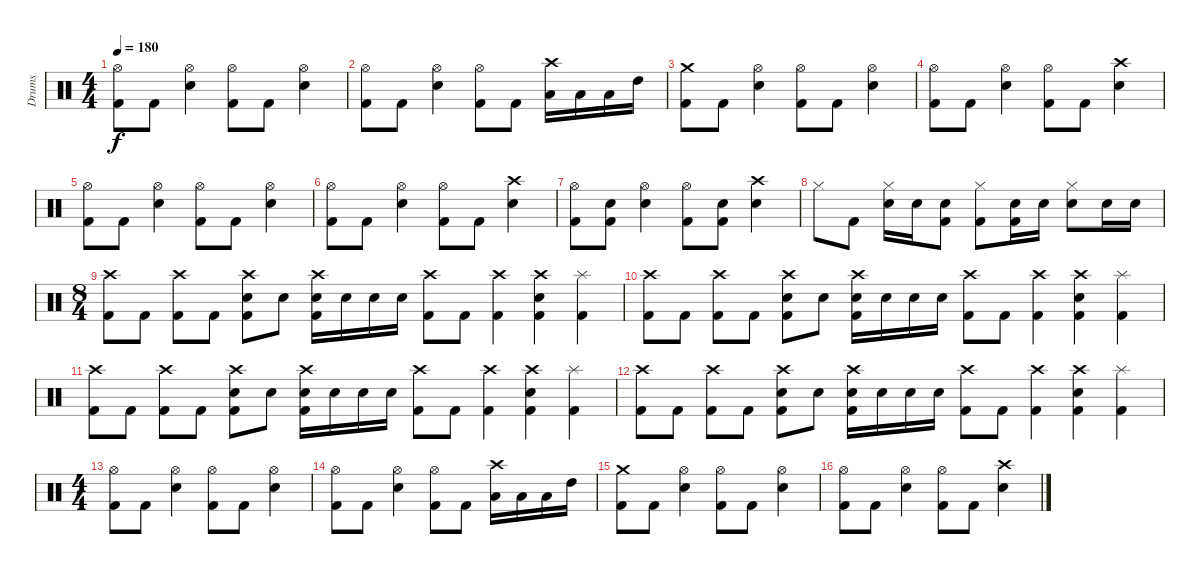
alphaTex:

\track ("Drums" "Drums") {instrument percussion}
\staff {score}
\articulation defaults
\ts (4 4)
\tempo 180
\clef neutral
\ks c
("Kick (hit) 2" "Hi-Hat (open)").8{dy f} "Kick (hit) 2".8 ("Electric Snare (hit)" "Hi-Hat (open)").4 ("Kick (hit) 2" "Hi-Hat (open)").8 "Kick (hit) 2".8 ("Electric Snare (hit)" "Hi-Hat (open)").4 |
("Kick (hit) 2" "Hi-Hat (open)").8 "Kick (hit) 2".8 ("Electric Snare (hit)" "Hi-Hat (open)").4 ("Kick (hit) 2" "Hi-Hat (open)").8 "Kick (hit) 2".8 ("Low Floor Tom (hit)" "Crash high (hit)").16 "Low Floor Tom (hit)".16 "Low Tom (hit)".16 "High Tom (hit)".16 |
("Kick (hit) 2" "Crash medium (hit)").8 "Kick (hit) 2".8 ("Electric Snare (hit)" "Hi-Hat (open)").4 ("Kick (hit) 2" "Hi-Hat (open)").8 "Kick (hit) 2".8 ("Electric Snare (hit)" "Hi-Hat (open)").4 |
("Kick (hit) 2" "Hi-Hat (open)").8 "Kick (hit) 2".8 ("Electric Snare (hit)" "Hi-Hat (open)").4 ("Kick (hit) 2" "Hi-Hat (open)").8 "Kick (hit) 2".8 ("Electric Snare (hit)" "Crash high (hit)").4 |
("Kick (hit) 2" "Hi-Hat (open)").8 "Kick (hit) 2".8 ("Electric Snare (hit)" "Hi-Hat (open)").4 ("Kick (hit) 2" "Hi-Hat (open)").8 "Kick (hit) 2".8 ("Electric Snare (hit)" "Hi-Hat (open)").4 |
("Kick (hit) 2" "Hi-Hat (open)").8 "Kick (hit) 2".8 ("Electric Snare (hit)" "Hi-Hat (open)").4 ("Kick (hit) 2" "Hi-Hat (open)").8 "Kick (hit) 2".8 ("Electric Snare (hit)" "Crash high (hit)").4 |
("Kick (hit) 2" "Hi-Hat (open)").8 ("Kick (hit) 2" "Electric Snare (hit)").8 ("Electric Snare (hit)" "Hi-Hat (open)").4 ("Kick (hit) 2" "Hi-Hat (open)").8 ("Kick (hit) 2" "Electric Snare (hit)").8 ("Electric Snare (hit)" "Crash high (hit)").4 |
"Hi-Hat (closed)".8 "Kick (hit) 2".8 ("Electric Snare (hit)" "Hi-Hat (closed)").16 "Electric Snare (hit)".16 ("Kick (hit) 2" "Electric Snare (hit)").8 ("Kick (hit) 2" "Hi-Hat (closed)").8 ("Kick (hit) 2" "Electric Snare (hit)").16 "Electric Snare (hit)".16 ("Electric Snare (hit)" "Hi-Hat (closed)").8 "Electric Snare (hit)".16 "Electric Snare (hit)".16 |
\ts (8 4)
("Kick (hit) 2" "Crash high (hit)").8 "Kick (hit) 2".8 ("Kick (hit) 2" "Crash high (hit)").8 "Kick (hit) 2".8 ("Kick (hit) 2" "Electric Snare (hit)" "Crash high (hit)").8 "Electric Snare (hit)".8 ("Kick (hit) 2" "Electric Snare (hit)" "Crash high (hit)").16 "Electric Snare (hit)".16 "Electric Snare (hit)".16 "Electric Snare (hit)".16 ("Kick (hit) 2" "Crash high (hit)").8 "Kick (hit) 2".8 ("Kick (hit) 2" "Crash high (hit)").4 ("Kick (hit) 2" "Electric Snare (hit)" "Crash high (hit)").4 ("Kick (hit) 2" "Splash (hit)").4 |
("Kick (hit) 2" "Crash high (hit)").8 "Kick (hit) 2".8 ("Kick (hit) 2" "Crash high (hit)").8 "Kick (hit) 2".8 ("Kick (hit) 2" "Electric Snare (hit)" "Crash high (hit)").8 "Electric Snare (hit)".8 ("Kick (hit) 2" "Electric Snare (hit)" "Crash high (hit)").16 "Electric Snare (hit)".16 "Electric Snare (hit)".16 "Electric Snare (hit)".16 ("Kick (hit) 2" "Crash high (hit)").8 "Kick (hit) 2".8 ("Kick (hit) 2" "Crash high (hit)").4 ("Kick (hit) 2" "Electric Snare (hit)" "Crash high (hit)").4 ("Kick (hit) 2" "Splash (hit)").4 |
("Kick (hit) 2" "Crash high (hit)").8 "Kick (hit) 2".8 ("Kick (hit) 2" "Crash high (hit)").8 "Kick (hit) 2".8 ("Kick (hit) 2" "Electric Snare (hit)" "Crash high (hit)").8 "Electric Snare (hit)".8 ("Kick (hit) 2" "Electric Snare (hit)" "Crash high (hit)").16 "Electric Snare (hit)".16 "Electric Snare (hit)".16 "Electric Snare (hit)".16 ("Kick (hit) 2" "Crash high (hit)").8 "Kick (hit) 2".8 ("Kick (hit) 2" "Crash high (hit)").4 ("Kick (hit) 2" "Electric Snare (hit)" "Crash high (hit)").4 ("Kick (hit) 2" "Splash (hit)").4 |
("Kick (hit) 2" "Crash high (hit)").8 "Kick (hit) 2".8 ("Kick (hit) 2" "Crash high (hit)").8 "Kick (hit) 2".8 ("Kick (hit) 2" "Electric Snare (hit)" "Crash high (hit)").8 "Electric Snare (hit)".8 ("Kick (hit) 2" "Electric Snare (hit)" "Crash high (hit)").16 "Electric Snare (hit)".16 "Electric Snare (hit)".16 "Electric Snare (hit)".16 ("Kick (hit) 2" "Crash high (hit)").8 "Kick (hit) 2".8 ("Kick (hit) 2" "Crash high (hit)").4 ("Kick (hit) 2" "Electric Snare (hit)" "Crash high (hit)").4 ("Kick (hit) 2" "Splash (hit)").4 |
\ts (4 4)
("Kick (hit) 2" "Hi-Hat (open)").8 "Kick (hit) 2".8 ("Electric Snare (hit)" "Hi-Hat (open)").4 ("Kick (hit) 2" "Hi-Hat (open)").8 "Kick (hit) 2".8 ("Electric Snare (hit)" "Hi-Hat (open)").4 |
("Kick (hit) 2" "Hi-Hat (open)").8 "Kick (hit) 2".8 ("Electric Snare (hit)" "Hi-Hat (open)").4 ("Kick (hit) 2" "Hi-Hat (open)").8 "Kick (hit) 2".8 ("Low Floor Tom (hit)" "Crash high (hit)").16 "Low Floor Tom (hit)".16 "Low Tom (hit)".16 "High Tom (hit)".16 |
("Kick (hit) 2" "Crash medium (hit)").8 "Kick (hit) 2".8 ("Electric Snare (hit)" "Hi-Hat (open)").4 ("Kick (hit) 2" "Hi-Hat (open)").8 "Kick (hit) 2".8 ("Electric Snare (hit)" "Hi-Hat (open)").4 |
("Kick (hit) 2" "Hi-Hat (open)").8 "Kick (hit) 2".8 ("Electric Snare (hit)" "Hi-Hat (open)").4 ("Kick (hit) 2" "Hi-Hat (open)").8 "Kick (hit) 2".8 ("Electric Snare (hit)" "Crash high (hit)").4
